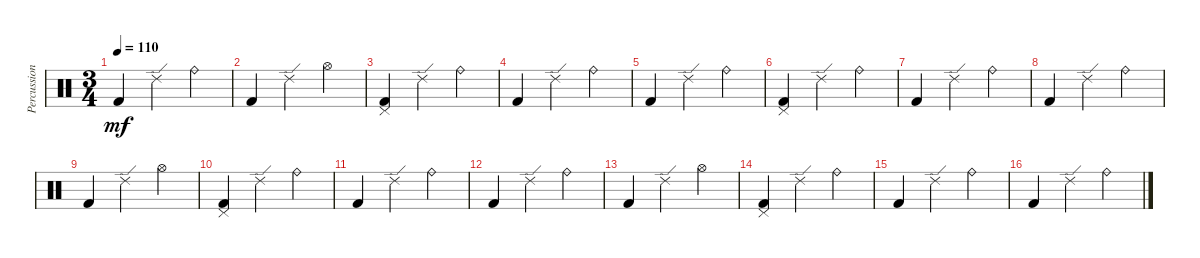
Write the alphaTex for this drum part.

\track ("Percussion" "Percussion") {instrument percussion}
\staff {score}
\articulation defaults
\ts (3 4)
\tempo 110
\clef neutral
\ks c "Kick (hit) 2".4{dy mf} "Ride (edge) 2".4 "Ride (bell)".4
|
"Kick (hit) 2".4 "Ride (edge) 2".4 "Hi-Hat (open)".4 |
("Pedal Hi-Hat (hit)" "Kick (hit) 2").4 "Ride (edge) 2".4 "Ride (bell)".4 |
"Kick (hit) 2".4 "Ride (edge) 2".4 "Ride (bell)".4 |
"Kick (hit) 2".4 "Ride (edge) 2".4 "Ride (bell)".4 |
("Pedal Hi-Hat (hit)" "Kick (hit) 2").4 "Ride (edge) 2".4 "Ride (bell)".4 |
"Kick (hit) 2".4 "Ride (edge) 2".4 "Ride (bell)".4 |
"Kick (hit) 2".4 "Ride (edge) 2".4 "Ride (bell)".4 |
"Kick (hit) 2".4 "Ride (edge) 2".4 "Hi-Hat (open)".4 |
("Pedal Hi-Hat (hit)" "Kick (hit) 2").4 "Ride (edge) 2".4 "Ride (bell)".4 |
"Kick (hit) 2".4 "Ride (edge) 2".4 "Ride (bell)".4 |
"Kick (hit) 2".4 "Ride (edge) 2".4 "Ride (bell)".4 |
"Kick (hit) 2".4 "Ride (edge) 2".4 "Hi-Hat (open)".4 |
("Pedal Hi-Hat (hit)" "Kick (hit) 2").4 "Ride (edge) 2".4 "Ride (bell)".4 |
"Kick (hit) 2".4 "Ride (edge) 2".4 "Ride (bell)".4 |
"Kick (hit) 2".4 "Ride (edge) 2".4 "Ride (bell)".4
